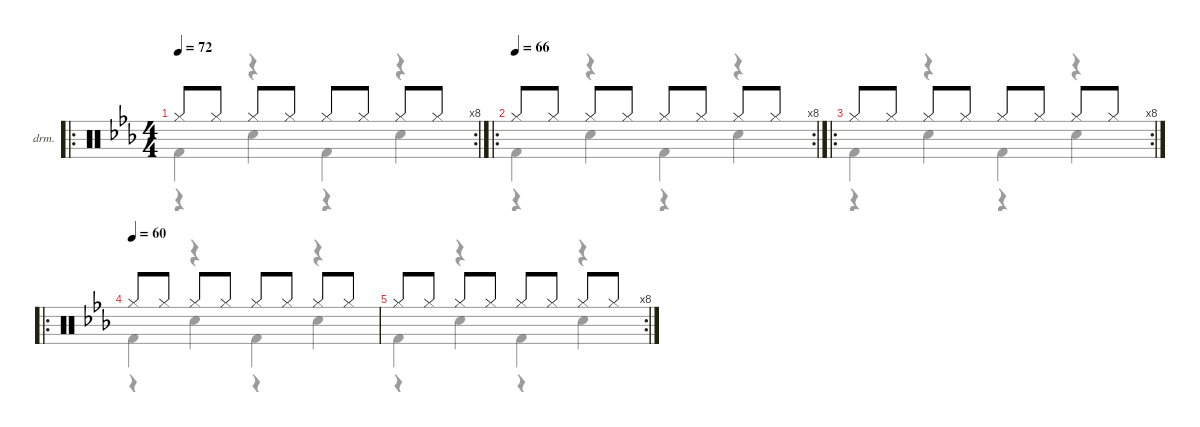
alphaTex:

\defaultSystemsLayout 4
\hideDynamics
\bracketExtendMode nobrackets
\firstSystemTrackNameOrientation horizontal
\otherSystemsTrackNameOrientation horizontal
\track ("Drumkit" "drm.") {defaultSystemsLayout 1 instrument percussion}
\staff {score}
\articulation defaults
\voice
\ro
\rc 8
\ts (4 4)
\tempo 72
\clef neutral
\ks eb "Hi-Hat (closed)"{acc forcenatural}.8{dy fff beam Up} "Hi-Hat (closed)"{acc forcenatural}.8{beam Up} "Hi-Hat (closed)"{acc forcenatural}.8{beam Up} "Hi-Hat (closed)"{acc forcenatural}.8{beam Up} "Hi-Hat (closed)"{acc forcenatural}.8{beam Up} "Hi-Hat (closed)"{acc forcenatural}.8{beam Up} "Hi-Hat (closed)"{acc forcenatural}.8{beam Up} "Hi-Hat (closed)"{acc forcenatural}.8{beam Up}
|
\ro
\rc 8
\tempo (66)
"Hi-Hat (closed)"{acc forcenatural}.8{beam Up} "Hi-Hat (closed)"{acc forcenatural}.8{beam Up} "Hi-Hat (closed)"{acc forcenatural}.8{beam Up} "Hi-Hat (closed)"{acc forcenatural}.8{beam Up} "Hi-Hat (closed)"{acc forcenatural}.8{beam Up} "Hi-Hat (closed)"{acc forcenatural}.8{beam Up} "Hi-Hat (closed)"{acc forcenatural}.8{beam Up} "Hi-Hat (closed)"{acc forcenatural}.8{beam Up} |
\ro
\rc 8 "Hi-Hat (closed)"{acc forcenatural}.8{beam Up} "Hi-Hat (closed)"{acc forcenatural}.8{beam Up} "Hi-Hat (closed)"{acc forcenatural}.8{beam Up} "Hi-Hat (closed)"{acc forcenatural}.8{beam Up} "Hi-Hat (closed)"{acc forcenatural}.8{beam Up} "Hi-Hat (closed)"{acc forcenatural}.8{beam Up} "Hi-Hat (closed)"{acc forcenatural}.8{beam Up} "Hi-Hat (closed)"{acc forcenatural}.8{beam Up}
|
\ro
\tempo (60)
"Hi-Hat (closed)"{acc forcenatural}.8{beam Up} "Hi-Hat (closed)"{acc forcenatural}.8{beam Up} "Hi-Hat (closed)"{acc forcenatural}.8{beam Up} "Hi-Hat (closed)"{acc forcenatural}.8{beam Up} "Hi-Hat (closed)"{acc forcenatural}.8{beam Up} "Hi-Hat (closed)"{acc forcenatural}.8{beam Up} "Hi-Hat (closed)"{acc forcenatural}.8{beam Up} "Hi-Hat (closed)"{acc forcenatural}.8{beam Up} |
\rc 8 "Hi-Hat (closed)"{acc forcenatural}.8{beam Up} "Hi-Hat (closed)"{acc forcenatural}.8{beam Up} "Hi-Hat (closed)"{acc forcenatural}.8{beam Up} "Hi-Hat (closed)"{acc forcenatural}.8{beam Up} "Hi-Hat (closed)"{acc forcenatural}.8{beam Up} "Hi-Hat (closed)"{acc forcenatural}.8{beam Up} "Hi-Hat (closed)"{acc forcenatural}.8{beam Up} "Hi-Hat (closed)"{acc forcenatural}.8{beam Up}
|
|
\voice
\clef neutral
\ottava regular
\simile none
\ks eb "Kick (hit) 2"{acc forcenatural}.4{dy ppp}
r.4 "Kick (hit) 2"{acc forcenatural}.4 r.4 |
"Kick (hit) 2"{acc forcenatural}.4 r.4 "Kick (hit) 2"{acc forcenatural}.4 r.4 |
"Kick (hit) 2"{acc forcenatural}.4 r.4 "Kick (hit) 2"{acc forcenatural}.4 r.4 |
"Kick (hit) 2"{acc forcenatural}.4 r.4 "Kick (hit) 2"{acc forcenatural}.4 r.4 |
"Kick (hit) 2"{acc forcenatural}.4 r.4 "Kick (hit) 2"{acc forcenatural}.4 r.4 |
|
\voice
\clef neutral
\ottava regular
\simile none
\ks eb
r.4{dy mp} "Snare (hit) 2"{acc forcenatural}.4 r.4 "Snare (hit) 2"{acc forcenatural}.4 |
r.4 "Snare (hit) 2"{acc forcenatural}.4 r.4 "Snare (hit) 2"{acc forcenatural}.4 |
r.4 "Snare (hit) 2"{acc forcenatural}.4 r.4 "Snare (hit) 2"{acc forcenatural}.4 |
r.4 "Snare (hit) 2"{acc forcenatural}.4 r.4 "Snare (hit) 2"{acc forcenatural}.4 |
r.4 "Snare (hit) 2"{acc forcenatural}.4 r.4 "Snare (hit) 2"{acc forcenatural}.4 |
|
